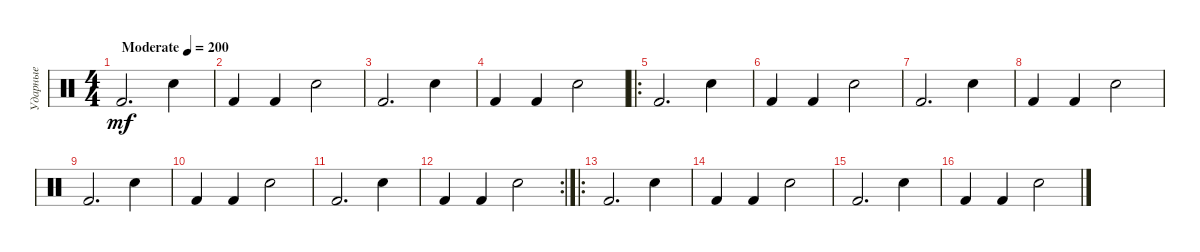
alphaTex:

\track ("Ударные" "Ударные") {instrument percussion}
\staff {score}
\articulation defaults
\ts (4 4)
\tempo (200 "Moderate")
\clef neutral
\ks c "Kick (hit) 2".2{d dy mf} "Snare (hit) 2".4
|
"Kick (hit) 2".4 "Kick (hit) 2".4 "Snare (hit) 2".2 |
"Kick (hit) 2".2{d} "Snare (hit) 2".4 |
"Kick (hit) 2".4 "Kick (hit) 2".4 "Snare (hit) 2".2 |
\ro "Kick (hit) 2".2{d} "Snare (hit) 2".4
|
"Kick (hit) 2".4 "Kick (hit) 2".4 "Snare (hit) 2".2 |
"Kick (hit) 2".2{d} "Snare (hit) 2".4 |
"Kick (hit) 2".4 "Kick (hit) 2".4 "Snare (hit) 2".2 |
"Kick (hit) 2".2{d} "Snare (hit) 2".4 |
"Kick (hit) 2".4 "Kick (hit) 2".4 "Snare (hit) 2".2 |
"Kick (hit) 2".2{d} "Snare (hit) 2".4 |
\rc 2 "Kick (hit) 2".4 "Kick (hit) 2".4 "Snare (hit) 2".2
|
\ro "Kick (hit) 2".2{d} "Snare (hit) 2".4
|
"Kick (hit) 2".4 "Kick (hit) 2".4 "Snare (hit) 2".2 |
"Kick (hit) 2".2{d} "Snare (hit) 2".4 |
"Kick (hit) 2".4 "Kick (hit) 2".4 "Snare (hit) 2".2
